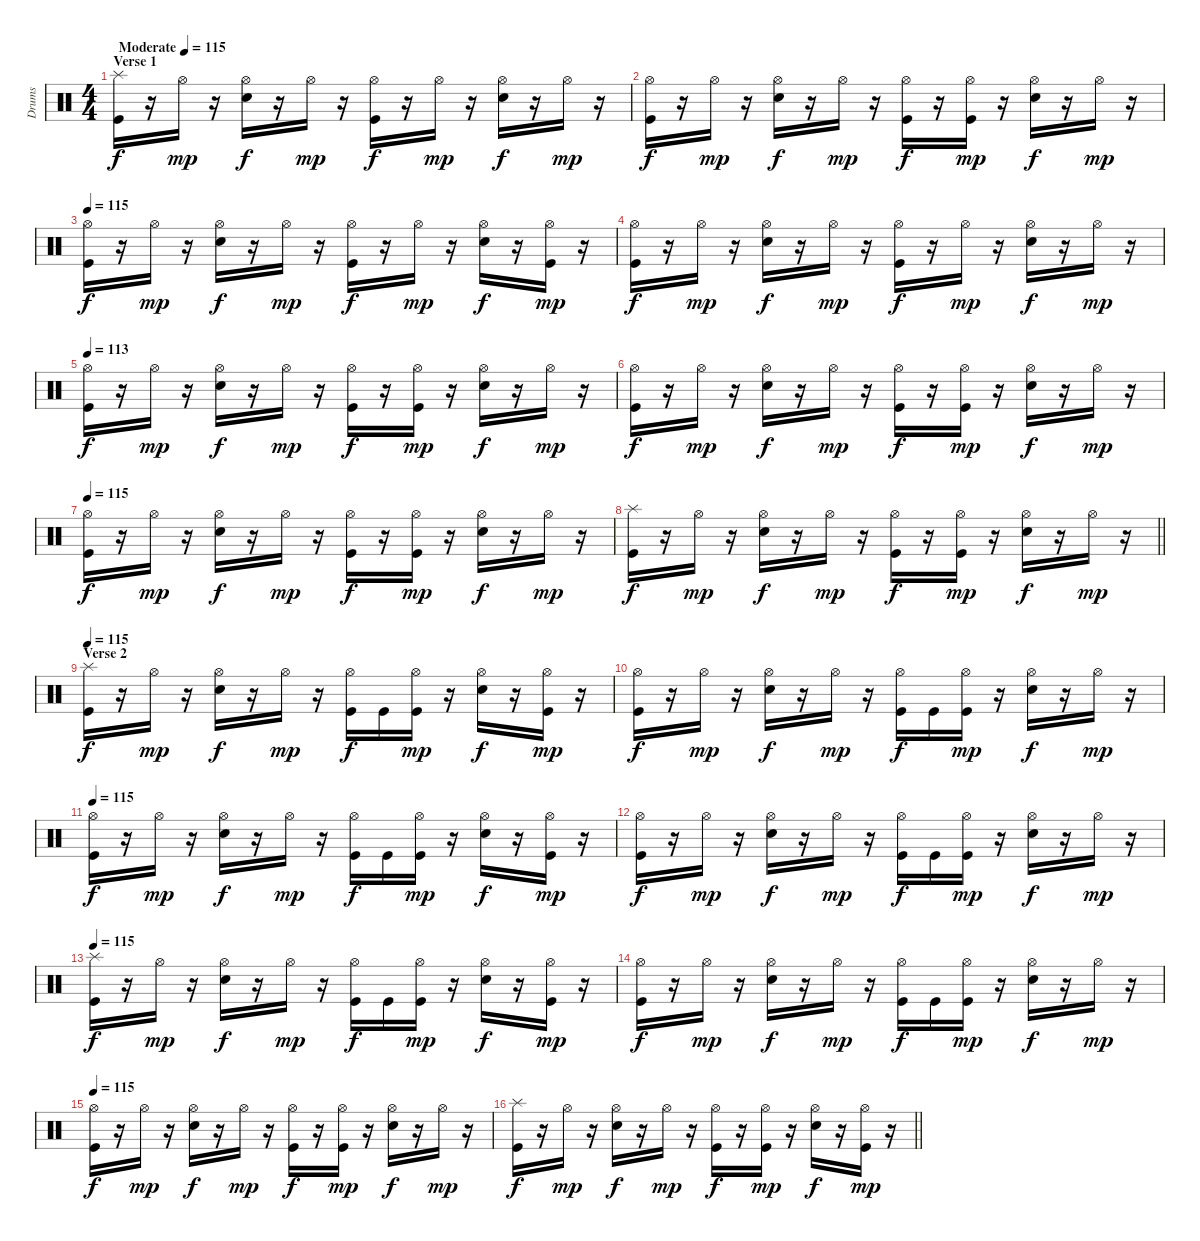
\track ("Drums" "Drums") {instrument percussion}
\staff {score}
\articulation defaults
\ts (4 4)
\section ("" "Verse 1")
\tempo (115 "Moderate")
\clef neutral
\ks c
("Splash (hit)" "Kick (hit)").16{dy f} r.16 "Hi-Hat (open)".16{dy mp} r.16 ("Hi-Hat (open)" "Electric Snare (hit)").16{dy f} r.16 "Hi-Hat (open)".16{dy mp} r.16 ("Hi-Hat (open)" "Kick (hit)").16{dy f} r.16 "Hi-Hat (open)".16{dy mp} r.16 ("Hi-Hat (open)" "Electric Snare (hit)").16{dy f} r.16 "Hi-Hat (open)".16{dy mp} r.16 |
("Hi-Hat (open)" "Kick (hit)").16{dy f} r.16 "Hi-Hat (open)".16{dy mp} r.16 ("Hi-Hat (open)" "Electric Snare (hit)").16{dy f} r.16 "Hi-Hat (open)".16{dy mp} r.16 ("Hi-Hat (open)" "Kick (hit)").16{dy f} r.16 ("Kick (hit)" "Hi-Hat (open)").16{dy mp} r.16 ("Hi-Hat (open)" "Electric Snare (hit)").16{dy f} r.16 "Hi-Hat (open)".16{dy mp} r.16 |
\tempo 115
("Hi-Hat (open)" "Kick (hit)").16{dy f} r.16 "Hi-Hat (open)".16{dy mp} r.16 ("Hi-Hat (open)" "Electric Snare (hit)").16{dy f} r.16 "Hi-Hat (open)".16{dy mp} r.16 ("Hi-Hat (open)" "Kick (hit)").16{dy f} r.16 "Hi-Hat (open)".16{dy mp} r.16 ("Hi-Hat (open)" "Electric Snare (hit)").16{dy f} r.16 ("Kick (hit)" "Hi-Hat (open)").16{dy mp} r.16 |
("Hi-Hat (open)" "Kick (hit)").16{dy f} r.16 "Hi-Hat (open)".16{dy mp} r.16 ("Hi-Hat (open)" "Electric Snare (hit)").16{dy f} r.16 "Hi-Hat (open)".16{dy mp} r.16 ("Hi-Hat (open)" "Kick (hit)").16{dy f} r.16 "Hi-Hat (open)".16{dy mp} r.16 ("Hi-Hat (open)" "Electric Snare (hit)").16{dy f} r.16 "Hi-Hat (open)".16{dy mp} r.16 |
\tempo 113
("Hi-Hat (open)" "Kick (hit)").16{dy f} r.16 "Hi-Hat (open)".16{dy mp} r.16 ("Hi-Hat (open)" "Electric Snare (hit)").16{dy f} r.16 "Hi-Hat (open)".16{dy mp} r.16 ("Hi-Hat (open)" "Kick (hit)").16{dy f} r.16 ("Kick (hit)" "Hi-Hat (open)").16{dy mp} r.16 ("Hi-Hat (open)" "Electric Snare (hit)").16{dy f} r.16 "Hi-Hat (open)".16{dy mp} r.16 |
("Hi-Hat (open)" "Kick (hit)").16{dy f} r.16 "Hi-Hat (open)".16{dy mp} r.16 ("Hi-Hat (open)" "Electric Snare (hit)").16{dy f} r.16 "Hi-Hat (open)".16{dy mp} r.16 ("Hi-Hat (open)" "Kick (hit)").16{dy f} r.16 ("Kick (hit)" "Hi-Hat (open)").16{dy mp} r.16 ("Hi-Hat (open)" "Electric Snare (hit)").16{dy f} r.16 "Hi-Hat (open)".16{dy mp} r.16 |
\tempo 115
("Hi-Hat (open)" "Kick (hit)").16{dy f} r.16 "Hi-Hat (open)".16{dy mp} r.16 ("Hi-Hat (open)" "Electric Snare (hit)").16{dy f} r.16 "Hi-Hat (open)".16{dy mp} r.16 ("Hi-Hat (open)" "Kick (hit)").16{dy f} r.16 ("Kick (hit)" "Hi-Hat (open)").16{dy mp} r.16 ("Hi-Hat (open)" "Electric Snare (hit)").16{dy f} r.16 "Hi-Hat (open)".16{dy mp} r.16 |
\barLineRight lightlight
("Splash (hit)" "Kick (hit)").16{dy f} r.16 "Hi-Hat (open)".16{dy mp} r.16 ("Hi-Hat (open)" "Electric Snare (hit)").16{dy f} r.16 "Hi-Hat (open)".16{dy mp} r.16 ("Hi-Hat (open)" "Kick (hit)").16{dy f} r.16 ("Kick (hit)" "Hi-Hat (open)").16{dy mp} r.16 ("Hi-Hat (open)" "Electric Snare (hit)").16{dy f} r.16 "Hi-Hat (open)".16{dy mp} r.16 |
\section ("" "Verse 2")
\tempo 115
("Splash (hit)" "Kick (hit)").16{dy f} r.16 "Hi-Hat (open)".16{dy mp} r.16 ("Hi-Hat (open)" "Electric Snare (hit)").16{dy f} r.16 "Hi-Hat (open)".16{dy mp} r.16 ("Hi-Hat (open)" "Kick (hit)").16{dy f} "Kick (hit)".16 ("Kick (hit)" "Hi-Hat (open)").16{dy mp} r.16 ("Hi-Hat (open)" "Electric Snare (hit)").16{dy f} r.16 ("Kick (hit)" "Hi-Hat (open)").16{dy mp} r.16 |
("Hi-Hat (open)" "Kick (hit)").16{dy f} r.16 "Hi-Hat (open)".16{dy mp} r.16 ("Hi-Hat (open)" "Electric Snare (hit)").16{dy f} r.16 "Hi-Hat (open)".16{dy mp} r.16 ("Hi-Hat (open)" "Kick (hit)").16{dy f} "Kick (hit)".16 ("Kick (hit)" "Hi-Hat (open)").16{dy mp} r.16 ("Hi-Hat (open)" "Electric Snare (hit)").16{dy f} r.16 "Hi-Hat (open)".16{dy mp} r.16 |
\tempo 115
("Hi-Hat (open)" "Kick (hit)").16{dy f} r.16 "Hi-Hat (open)".16{dy mp} r.16 ("Hi-Hat (open)" "Electric Snare (hit)").16{dy f} r.16 "Hi-Hat (open)".16{dy mp} r.16 ("Hi-Hat (open)" "Kick (hit)").16{dy f} "Kick (hit)".16 ("Kick (hit)" "Hi-Hat (open)").16{dy mp} r.16 ("Hi-Hat (open)" "Electric Snare (hit)").16{dy f} r.16 ("Kick (hit)" "Hi-Hat (open)").16{dy mp} r.16 |
("Hi-Hat (open)" "Kick (hit)").16{dy f} r.16 "Hi-Hat (open)".16{dy mp} r.16 ("Hi-Hat (open)" "Electric Snare (hit)").16{dy f} r.16 "Hi-Hat (open)".16{dy mp} r.16 ("Hi-Hat (open)" "Kick (hit)").16{dy f} "Kick (hit)".16 ("Kick (hit)" "Hi-Hat (open)").16{dy mp} r.16 ("Hi-Hat (open)" "Electric Snare (hit)").16{dy f} r.16 "Hi-Hat (open)".16{dy mp} r.16 |
\tempo 115
("Splash (hit)" "Kick (hit)").16{dy f} r.16 "Hi-Hat (open)".16{dy mp} r.16 ("Hi-Hat (open)" "Electric Snare (hit)").16{dy f} r.16 "Hi-Hat (open)".16{dy mp} r.16 ("Hi-Hat (open)" "Kick (hit)").16{dy f} "Kick (hit)".16 ("Kick (hit)" "Hi-Hat (open)").16{dy mp} r.16 ("Hi-Hat (open)" "Electric Snare (hit)").16{dy f} r.16 ("Kick (hit)" "Hi-Hat (open)").16{dy mp} r.16 |
("Hi-Hat (open)" "Kick (hit)").16{dy f} r.16 "Hi-Hat (open)".16{dy mp} r.16 ("Hi-Hat (open)" "Electric Snare (hit)").16{dy f} r.16 "Hi-Hat (open)".16{dy mp} r.16 ("Hi-Hat (open)" "Kick (hit)").16{dy f} "Kick (hit)".16 ("Kick (hit)" "Hi-Hat (open)").16{dy mp} r.16 ("Hi-Hat (open)" "Electric Snare (hit)").16{dy f} r.16 "Hi-Hat (open)".16{dy mp} r.16 |
\tempo 115
("Hi-Hat (open)" "Kick (hit)").16{dy f} r.16 "Hi-Hat (open)".16{dy mp} r.16 ("Hi-Hat (open)" "Electric Snare (hit)").16{dy f} r.16 "Hi-Hat (open)".16{dy mp} r.16 ("Hi-Hat (open)" "Kick (hit)").16{dy f} r.16 ("Kick (hit)" "Hi-Hat (open)").16{dy mp} r.16 ("Hi-Hat (open)" "Electric Snare (hit)").16{dy f} r.16 "Hi-Hat (open)".16{dy mp} r.16 |
\barLineRight lightlight
("Splash (hit)" "Kick (hit)").16{dy f} r.16 "Hi-Hat (open)".16{dy mp} r.16 ("Hi-Hat (open)" "Electric Snare (hit)").16{dy f} r.16 "Hi-Hat (open)".16{dy mp} r.16 ("Hi-Hat (open)" "Kick (hit)").16{dy f} r.16 ("Kick (hit)" "Hi-Hat (open)").16{dy mp} r.16 ("Hi-Hat (open)" "Electric Snare (hit)").16{dy f} r.16 ("Kick (hit)" "Hi-Hat (open)").16{dy mp} r.16
